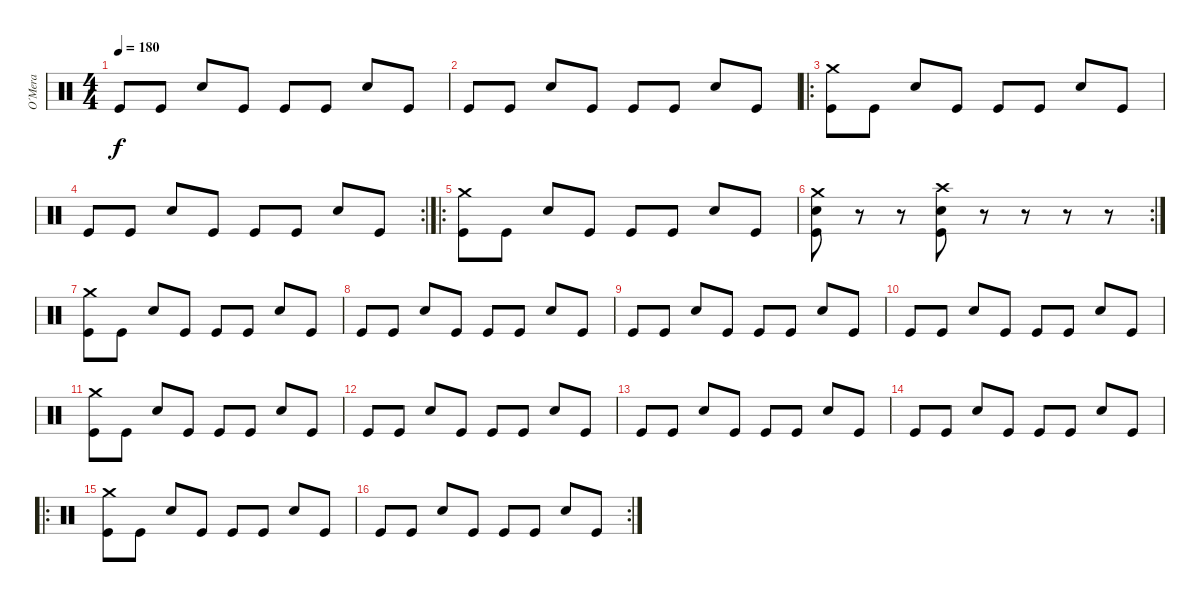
\track ("O´Mera" "O´Mera") {instrument percussion}
\staff {score}
\articulation defaults
\ts (4 4)
\tempo 180
\clef neutral
\ks c "Kick (hit)".8{dy f} "Kick (hit)".8 "Electric Snare (hit)".8 "Kick (hit)".8 "Kick (hit)".8 "Kick (hit)".8 "Electric Snare (hit)".8 "Kick (hit)".8
|
"Kick (hit)".8 "Kick (hit)".8 "Electric Snare (hit)".8 "Kick (hit)".8 "Kick (hit)".8 "Kick (hit)".8 "Electric Snare (hit)".8 "Kick (hit)".8 |
\ro
("Crash medium (hit)" "Kick (hit)").8 "Kick (hit)".8 "Electric Snare (hit)".8 "Kick (hit)".8 "Kick (hit)".8 "Kick (hit)".8 "Electric Snare (hit)".8 "Kick (hit)".8 |
\rc 2 "Kick (hit)".8 "Kick (hit)".8 "Electric Snare (hit)".8 "Kick (hit)".8 "Kick (hit)".8 "Kick (hit)".8 "Electric Snare (hit)".8 "Kick (hit)".8
|
\ro
("Crash medium (hit)" "Kick (hit)").8 "Kick (hit)".8 "Electric Snare (hit)".8 "Kick (hit)".8 "Kick (hit)".8 "Kick (hit)".8 "Electric Snare (hit)".8 "Kick (hit)".8 |
\rc 2
("Crash medium (hit)" "Electric Snare (hit)" "Kick (hit)").8 r.8 r.8 ("Crash high (hit)" "Electric Snare (hit)" "Kick (hit)").8 r.8 r.8 r.8 r.8 |
("Crash medium (hit)" "Kick (hit)").8 "Kick (hit)".8 "Electric Snare (hit)".8 "Kick (hit)".8 "Kick (hit)".8 "Kick (hit)".8 "Electric Snare (hit)".8 "Kick (hit)".8 |
"Kick (hit)".8 "Kick (hit)".8 "Electric Snare (hit)".8 "Kick (hit)".8 "Kick (hit)".8 "Kick (hit)".8 "Electric Snare (hit)".8 "Kick (hit)".8 |
"Kick (hit)".8 "Kick (hit)".8 "Electric Snare (hit)".8 "Kick (hit)".8 "Kick (hit)".8 "Kick (hit)".8 "Electric Snare (hit)".8 "Kick (hit)".8 |
"Kick (hit)".8 "Kick (hit)".8 "Electric Snare (hit)".8 "Kick (hit)".8 "Kick (hit)".8 "Kick (hit)".8 "Electric Snare (hit)".8 "Kick (hit)".8 |
("Crash medium (hit)" "Kick (hit)").8 "Kick (hit)".8 "Electric Snare (hit)".8 "Kick (hit)".8 "Kick (hit)".8 "Kick (hit)".8 "Electric Snare (hit)".8 "Kick (hit)".8 |
"Kick (hit)".8 "Kick (hit)".8 "Electric Snare (hit)".8 "Kick (hit)".8 "Kick (hit)".8 "Kick (hit)".8 "Electric Snare (hit)".8 "Kick (hit)".8 |
"Kick (hit)".8 "Kick (hit)".8 "Electric Snare (hit)".8 "Kick (hit)".8 "Kick (hit)".8 "Kick (hit)".8 "Electric Snare (hit)".8 "Kick (hit)".8 |
"Kick (hit)".8 "Kick (hit)".8 "Electric Snare (hit)".8 "Kick (hit)".8 "Kick (hit)".8 "Kick (hit)".8 "Electric Snare (hit)".8 "Kick (hit)".8 |
\ro
("Crash medium (hit)" "Kick (hit)").8 "Kick (hit)".8 "Electric Snare (hit)".8 "Kick (hit)".8 "Kick (hit)".8 "Kick (hit)".8 "Electric Snare (hit)".8 "Kick (hit)".8 |
\rc 2 "Kick (hit)".8 "Kick (hit)".8 "Electric Snare (hit)".8 "Kick (hit)".8 "Kick (hit)".8 "Kick (hit)".8 "Electric Snare (hit)".8 "Kick (hit)".8
